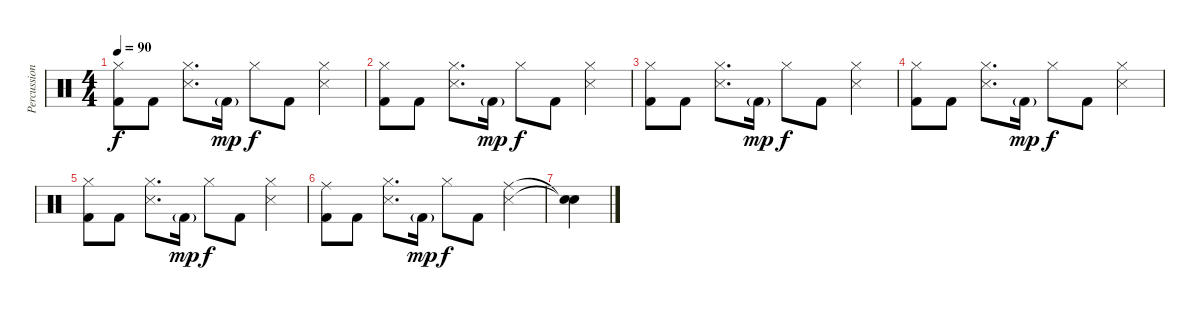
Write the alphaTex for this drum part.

\track ("Percussion" "Percussion") {instrument percussion}
\staff {score}
\articulation defaults
\ts (4 4)
\tempo 90
\clef neutral
\ks c
("Hi-Hat (closed)" "Kick (hit) 2").8{dy f} "Kick (hit) 2".8 ("Hi-Hat (closed)" "Snare (side stick) 3").8{d} "Kick (hit) 2"{g}.16{dy mp} "Hi-Hat (closed)".8{dy f} "Kick (hit) 2".8 ("Hi-Hat (closed)" "Snare (side stick) 3").4 |
("Hi-Hat (closed)" "Kick (hit) 2").8 "Kick (hit) 2".8 ("Hi-Hat (closed)" "Snare (side stick) 3").8{d} "Kick (hit) 2"{g}.16{dy mp} "Hi-Hat (closed)".8{dy f} "Kick (hit) 2".8 ("Hi-Hat (closed)" "Snare (side stick) 3").4 |
("Hi-Hat (closed)" "Kick (hit) 2").8 "Kick (hit) 2".8 ("Hi-Hat (closed)" "Snare (side stick) 3").8{d} "Kick (hit) 2"{g}.16{dy mp} "Hi-Hat (closed)".8{dy f} "Kick (hit) 2".8 ("Hi-Hat (closed)" "Snare (side stick) 3").4 |
("Hi-Hat (closed)" "Kick (hit) 2").8 "Kick (hit) 2".8 ("Hi-Hat (closed)" "Snare (side stick) 3").8{d} "Kick (hit) 2"{g}.16{dy mp} "Hi-Hat (closed)".8{dy f} "Kick (hit) 2".8 ("Hi-Hat (closed)" "Snare (side stick) 3").4 |
("Hi-Hat (closed)" "Kick (hit) 2").8 "Kick (hit) 2".8 ("Hi-Hat (closed)" "Snare (side stick) 3").8{d} "Kick (hit) 2"{g}.16{dy mp} "Hi-Hat (closed)".8{dy f} "Kick (hit) 2".8 ("Hi-Hat (closed)" "Snare (side stick) 3").4 |
("Ride (middle)" "Kick (hit) 2").8 "Kick (hit) 2".8 ("Hi-Hat (closed)" "Snare (side stick) 3").8{d} "Kick (hit) 2"{g}.16{dy mp} "Hi-Hat (closed)".8{dy f} "Kick (hit) 2".8 ("Ride (middle)" "Snare (side stick) 3").4 |
("Snare (hit)"{t} "Snare (hit)"{t}).4
